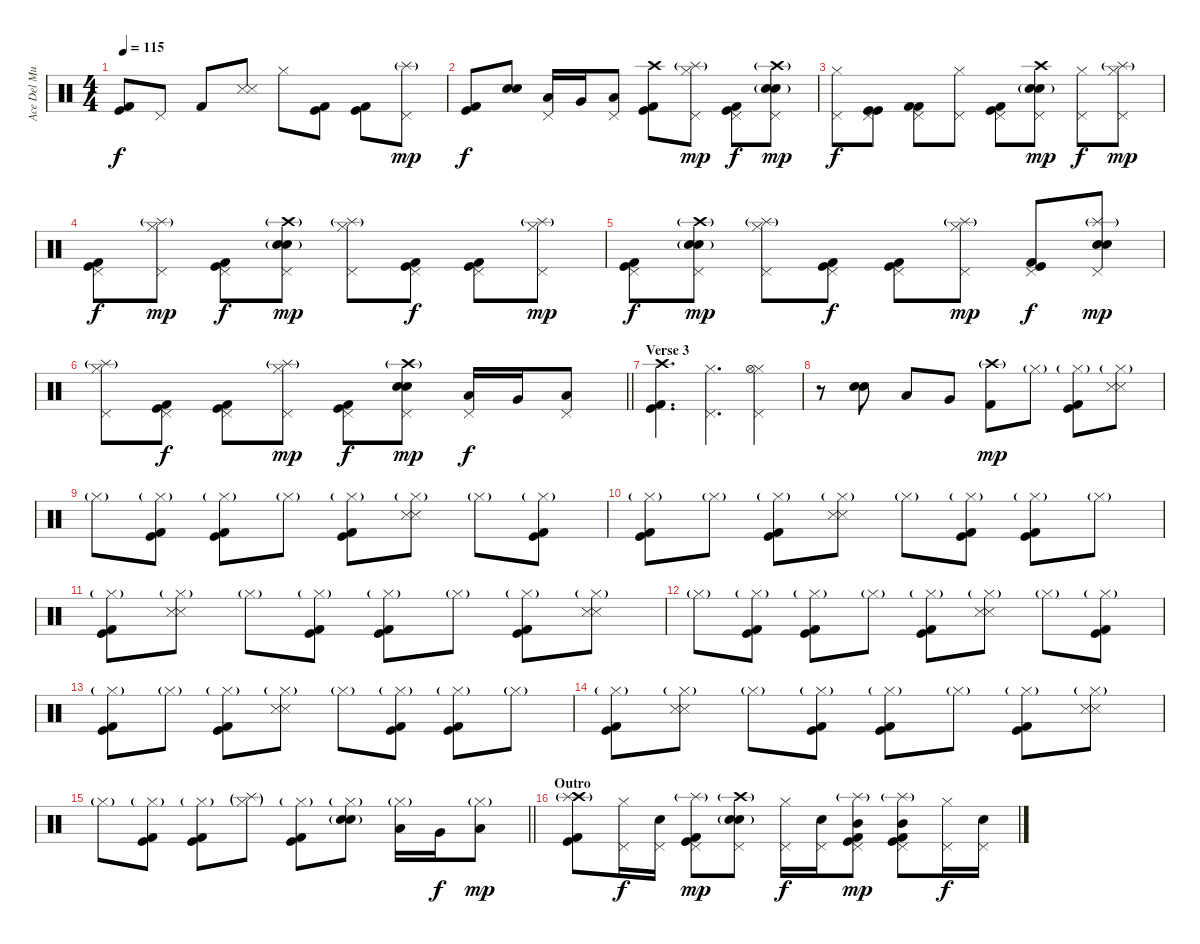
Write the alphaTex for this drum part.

\track ("Ace Del Mundo(Drums)" "Ace Del Mu") {instrument percussion}
\staff {score}
\articulation defaults
\ts (4 4)
\tempo 115
\clef neutral
\ks c
("Kick (hit) 2" "Kick (hit)").8{dy f} "Pedal Hi-Hat (hit)".8 "Kick (hit) 2".8 ("Snare (side stick) 3" "Snare (side stick) 3").8 "Hi-Hat (closed)".8 ("Kick (hit) 2" "Kick (hit)").8 ("Kick (hit) 2" "Kick (hit)").8 ("Pedal Hi-Hat (hit)" "Splash (hit)"{g}).8{dy mp} |
("Kick (hit) 2" "Kick (hit)").8{dy f} ("Electric Snare (hit)" "Snare (hit) 2").8 ("Pedal Hi-Hat (hit)" "Low Tom (hit)").16 "Very Low Tom (hit)".16 ("Pedal Hi-Hat (hit)" "Low Tom (hit)").8 ("Crash high (hit)" "Kick (hit) 2" "Kick (hit)").8 ("Pedal Hi-Hat (hit)" "Hi-Hat (closed)" "Splash (hit)"{g}).8{dy mp} ("Pedal Hi-Hat (hit)" "Kick (hit) 2" "Kick (hit)").8{dy f} ("Pedal Hi-Hat (hit)" "Electric Snare (hit)" "Snare (hit) 2"{g} "Crash high (hit)"{g}).8{dy mp} |
("Pedal Hi-Hat (hit)" "Hi-Hat (closed)").8{dy f} ("Pedal Hi-Hat (hit)" "Kick (hit)" "Kick (hit)").8 ("Pedal Hi-Hat (hit)" "Kick (hit) 2" "Kick (hit) 2").8 ("Pedal Hi-Hat (hit)" "Hi-Hat (closed)").8 ("Pedal Hi-Hat (hit)" "Kick (hit) 2" "Kick (hit)").8 ("Pedal Hi-Hat (hit)" "Electric Snare (hit)" "Snare (hit) 2"{g} "Crash high (hit)").8{dy mp} ("Pedal Hi-Hat (hit)" "Hi-Hat (closed)").8{dy f} ("Pedal Hi-Hat (hit)" "Hi-Hat (closed)" "Splash (hit)"{g}).8{dy mp} |
("Pedal Hi-Hat (hit)" "Kick (hit) 2" "Kick (hit)").8{dy f} ("Pedal Hi-Hat (hit)" "Hi-Hat (closed)" "Splash (hit)"{g}).8{dy mp} ("Pedal Hi-Hat (hit)" "Kick (hit) 2" "Kick (hit)").8{dy f} ("Pedal Hi-Hat (hit)" "Electric Snare (hit)" "Snare (hit) 2"{g} "Crash high (hit)"{g}).8{dy mp} ("Pedal Hi-Hat (hit)" "Hi-Hat (closed)" "Splash (hit)"{g}).8 ("Pedal Hi-Hat (hit)" "Kick (hit) 2" "Kick (hit)").8{dy f} ("Pedal Hi-Hat (hit)" "Kick (hit) 2" "Kick (hit)").8 ("Pedal Hi-Hat (hit)" "Hi-Hat (closed)" "Splash (hit)"{g}).8{dy mp} |
("Pedal Hi-Hat (hit)" "Kick (hit) 2" "Kick (hit)").8{dy f} ("Pedal Hi-Hat (hit)" "Electric Snare (hit)" "Snare (hit) 2"{g} "Crash high (hit)"{g}).8{dy mp} ("Pedal Hi-Hat (hit)" "Hi-Hat (closed)" "Splash (hit)"{g}).8 ("Pedal Hi-Hat (hit)" "Kick (hit) 2" "Kick (hit)").8{dy f} ("Pedal Hi-Hat (hit)" "Kick (hit) 2" "Kick (hit)").8 ("Pedal Hi-Hat (hit)" "Hi-Hat (closed)" "Splash (hit)"{g}).8{dy mp} ("Pedal Hi-Hat (hit)" "Kick (hit) 2" "Kick (hit)").8{dy f} ("Pedal Hi-Hat (hit)" "Electric Snare (hit)" "Snare (hit) 2" "Splash (hit)"{g}).8{dy mp} |
\barLineRight lightlight
("Pedal Hi-Hat (hit)" "Hi-Hat (closed)" "Splash (hit)"{g}).8 ("Pedal Hi-Hat (hit)" "Kick (hit) 2" "Kick (hit)").8{dy f} ("Pedal Hi-Hat (hit)" "Kick (hit) 2" "Kick (hit)").8 ("Pedal Hi-Hat (hit)" "Hi-Hat (closed)" "Splash (hit)"{g}).8{dy mp} ("Pedal Hi-Hat (hit)" "Kick (hit) 2" "Kick (hit)").8{dy f} ("Pedal Hi-Hat (hit)" "Electric Snare (hit)" "Snare (hit) 2" "Crash high (hit)"{g}).8{dy mp} ("Pedal Hi-Hat (hit)" "Low Tom (hit)").16{dy f} "Very Low Tom (hit)".16 ("Pedal Hi-Hat (hit)" "Low Tom (hit)").8 |
\section ("" "Verse 3")
("Crash high (hit)" "Kick (hit) 2" "Kick (hit)").4{d} ("Pedal Hi-Hat (hit)" "Hi-Hat (closed)").4{d} ("Pedal Hi-Hat (hit)" "Hi-Hat (closed)" "Hi-Hat (open)").4 |
r.8 ("Snare (hit) 2" "Electric Snare (hit)").8{bd 60} "Low Tom (hit)".8 "Very Low Tom (hit)".8 ("Crash high (hit)"{g} "Kick (hit) 2").8{dy mp} "Hi-Hat (closed)"{g}.8 ("Hi-Hat (closed)"{g} "Kick (hit) 2" "Kick (hit)").8 ("Hi-Hat (closed)"{g} "Snare (side stick) 3" "Snare (side stick) 3").8 |
"Hi-Hat (closed)"{g}.8 ("Hi-Hat (closed)"{g} "Kick (hit) 2" "Kick (hit)").8 ("Hi-Hat (closed)"{g} "Kick (hit) 2" "Kick (hit)").8 "Hi-Hat (closed)"{g}.8 ("Hi-Hat (closed)"{g} "Kick (hit) 2" "Kick (hit)").8 ("Hi-Hat (closed)"{g} "Snare (side stick) 3" "Snare (side stick) 3").8 "Hi-Hat (closed)"{g}.8 ("Hi-Hat (closed)"{g} "Kick (hit) 2" "Kick (hit)").8 |
("Hi-Hat (closed)"{g} "Kick (hit) 2" "Kick (hit)").8 "Hi-Hat (closed)"{g}.8 ("Hi-Hat (closed)"{g} "Kick (hit) 2" "Kick (hit)").8 ("Hi-Hat (closed)"{g} "Snare (side stick) 3" "Snare (side stick) 3").8 "Hi-Hat (closed)"{g}.8 ("Hi-Hat (closed)"{g} "Kick (hit) 2" "Kick (hit)").8 ("Hi-Hat (closed)"{g} "Kick (hit) 2" "Kick (hit)").8 "Hi-Hat (closed)"{g}.8 |
("Hi-Hat (closed)"{g} "Kick (hit) 2" "Kick (hit)").8 ("Hi-Hat (closed)"{g} "Snare (side stick) 3" "Snare (side stick) 3").8 "Hi-Hat (closed)"{g}.8 ("Hi-Hat (closed)"{g} "Kick (hit) 2" "Kick (hit)").8 ("Hi-Hat (closed)"{g} "Kick (hit) 2" "Kick (hit)").8 "Hi-Hat (closed)"{g}.8 ("Hi-Hat (closed)"{g} "Kick (hit) 2" "Kick (hit)").8 ("Hi-Hat (closed)"{g} "Snare (side stick) 3" "Snare (side stick) 3").8 |
"Hi-Hat (closed)"{g}.8 ("Hi-Hat (closed)"{g} "Kick (hit) 2" "Kick (hit)").8 ("Hi-Hat (closed)"{g} "Kick (hit) 2" "Kick (hit)").8 "Hi-Hat (closed)"{g}.8 ("Hi-Hat (closed)"{g} "Kick (hit) 2" "Kick (hit)").8 ("Hi-Hat (closed)"{g} "Snare (side stick) 3" "Snare (side stick) 3").8 "Hi-Hat (closed)"{g}.8 ("Hi-Hat (closed)"{g} "Kick (hit) 2" "Kick (hit)").8 |
("Hi-Hat (closed)"{g} "Kick (hit) 2" "Kick (hit)").8 "Hi-Hat (closed)"{g}.8 ("Hi-Hat (closed)"{g} "Kick (hit) 2" "Kick (hit)").8 ("Hi-Hat (closed)"{g} "Snare (side stick) 3" "Snare (side stick) 3").8 "Hi-Hat (closed)"{g}.8 ("Hi-Hat (closed)"{g} "Kick (hit) 2" "Kick (hit)").8 ("Hi-Hat (closed)"{g} "Kick (hit) 2" "Kick (hit)").8 "Hi-Hat (closed)"{g}.8 |
("Hi-Hat (closed)"{g} "Kick (hit) 2" "Kick (hit)").8 ("Hi-Hat (closed)"{g} "Snare (side stick) 3" "Snare (side stick) 3").8 "Hi-Hat (closed)"{g}.8 ("Hi-Hat (closed)"{g} "Kick (hit) 2" "Kick (hit)").8 ("Hi-Hat (closed)"{g} "Kick (hit) 2" "Kick (hit)").8 "Hi-Hat (closed)"{g}.8 ("Hi-Hat (closed)"{g} "Kick (hit) 2" "Kick (hit)").8 ("Hi-Hat (closed)"{g} "Snare (side stick) 3" "Snare (side stick) 3").8 |
\barLineRight lightlight "Hi-Hat (closed)"{g}.8
("Hi-Hat (closed)"{g} "Kick (hit) 2" "Kick (hit)").8 ("Hi-Hat (closed)"{g} "Kick (hit) 2" "Kick (hit)").8 ("Hi-Hat (closed)"{g} "Splash (hit)"{g}).8 ("Hi-Hat (closed)"{g} "Kick (hit) 2" "Kick (hit)").8 ("Hi-Hat (closed)"{g} "Electric Snare (hit)" "Snare (hit) 2"{g}).8 ("Hi-Hat (closed)"{g} "Low Tom (hit)").16 "Very Low Tom (hit)".16{dy f} ("Hi-Hat (closed)"{g} "Low Tom (hit)").8{dy mp} |
\section ("" "Outro")
("Crash high (hit)" "Kick (hit) 2" "Kick (hit)" "Splash (hit)"{g}).8 ("Pedal Hi-Hat (hit)" "Hi-Hat (closed)").16{dy f} ("Pedal Hi-Hat (hit)" "Electric Snare (hit)").16 ("Pedal Hi-Hat (hit)" "Kick (hit) 2" "Kick (hit)" "Splash (hit)"{g}).8{dy mp} ("Pedal Hi-Hat (hit)" "Electric Snare (hit)" "Snare (hit) 2"{g} "Crash high (hit)"{g}).8 ("Pedal Hi-Hat (hit)" "Hi-Hat (closed)").16{dy f} ("Pedal Hi-Hat (hit)" "Electric Snare (hit)").16 ("Pedal Hi-Hat (hit)" "Kick (hit) 2" "Kick (hit)" "Splash (hit)"{g} "Mid Tom (hit)").8{dy mp} ("Pedal Hi-Hat (hit)" "Kick (hit) 2" "Kick (hit)" "Splash (hit)"{g} "Mid Tom (hit)").8 ("Pedal Hi-Hat (hit)" "Hi-Hat (closed)").16{dy f} ("Pedal Hi-Hat (hit)" "Electric Snare (hit)").16
